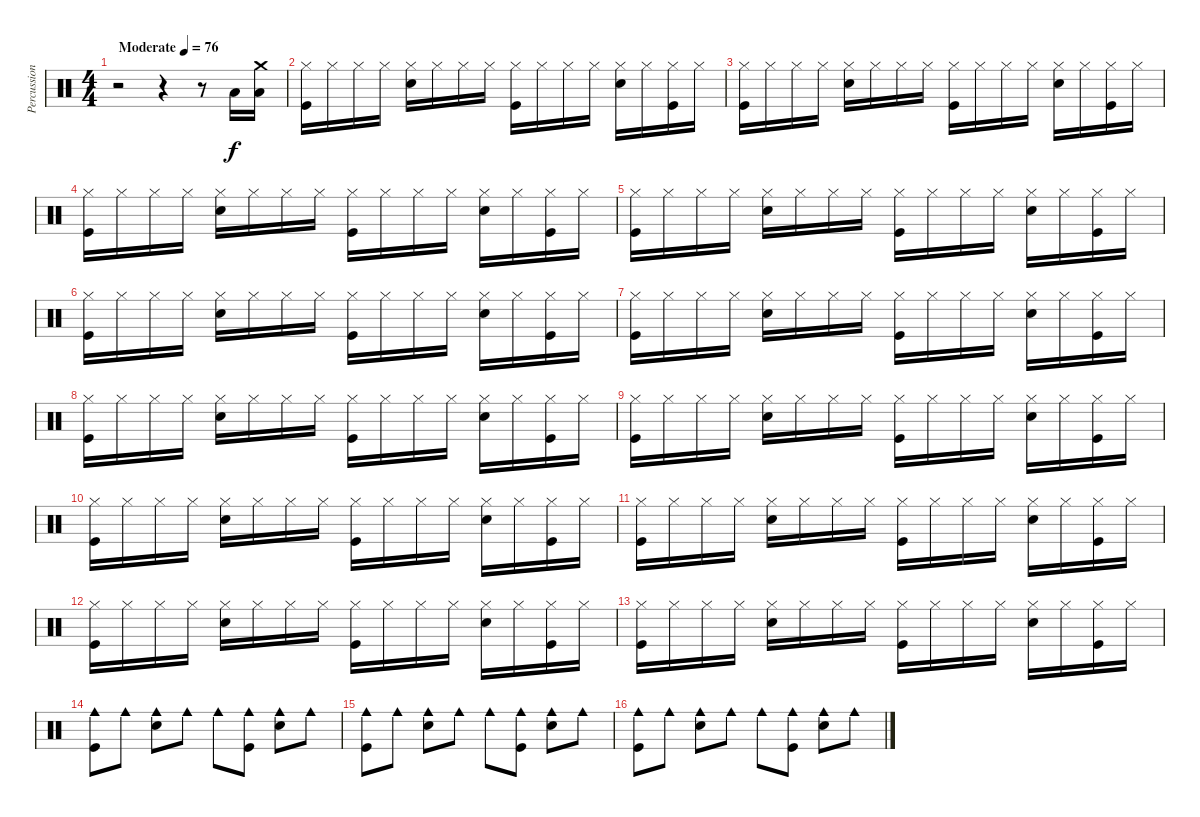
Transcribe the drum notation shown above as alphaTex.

\track ("Percussion" "Percussion") {instrument percussion}
\staff {score}
\articulation defaults
\ts (4 4)
\tempo (76 "Moderate")
\clef neutral
\ks c
r.2{dy f} r.4 r.8 "Low Tom (hit)".16 ("Crash medium (hit)" "Low Floor Tom (hit)").16 |
("Hi-Hat (closed)" "Kick (hit)").16 "Hi-Hat (closed)".16 "Hi-Hat (closed)".16 "Hi-Hat (closed)".16 ("Hi-Hat (closed)" "Snare (hit) 2").16 "Hi-Hat (closed)".16 "Hi-Hat (closed)".16 "Hi-Hat (closed)".16 ("Hi-Hat (closed)" "Kick (hit)").16 "Hi-Hat (closed)".16 "Hi-Hat (closed)".16 "Hi-Hat (closed)".16 ("Hi-Hat (closed)" "Snare (hit) 2").16 "Hi-Hat (closed)".16 ("Hi-Hat (closed)" "Kick (hit)").16 "Hi-Hat (closed)".16 |
("Hi-Hat (closed)" "Kick (hit)").16 "Hi-Hat (closed)".16 "Hi-Hat (closed)".16 "Hi-Hat (closed)".16 ("Hi-Hat (closed)" "Snare (hit) 2").16 "Hi-Hat (closed)".16 "Hi-Hat (closed)".16 "Hi-Hat (closed)".16 ("Hi-Hat (closed)" "Kick (hit)").16 "Hi-Hat (closed)".16 "Hi-Hat (closed)".16 "Hi-Hat (closed)".16 ("Hi-Hat (closed)" "Snare (hit) 2").16 "Hi-Hat (closed)".16 ("Hi-Hat (closed)" "Kick (hit)").16 "Hi-Hat (closed)".16 |
("Hi-Hat (closed)" "Kick (hit)").16 "Hi-Hat (closed)".16 "Hi-Hat (closed)".16 "Hi-Hat (closed)".16 ("Hi-Hat (closed)" "Snare (hit) 2").16 "Hi-Hat (closed)".16 "Hi-Hat (closed)".16 "Hi-Hat (closed)".16 ("Hi-Hat (closed)" "Kick (hit)").16 "Hi-Hat (closed)".16 "Hi-Hat (closed)".16 "Hi-Hat (closed)".16 ("Hi-Hat (closed)" "Snare (hit) 2").16 "Hi-Hat (closed)".16 ("Hi-Hat (closed)" "Kick (hit)").16 "Hi-Hat (closed)".16 |
("Hi-Hat (closed)" "Kick (hit)").16 "Hi-Hat (closed)".16 "Hi-Hat (closed)".16 "Hi-Hat (closed)".16 ("Hi-Hat (closed)" "Snare (hit) 2").16 "Hi-Hat (closed)".16 "Hi-Hat (closed)".16 "Hi-Hat (closed)".16 ("Hi-Hat (closed)" "Kick (hit)").16 "Hi-Hat (closed)".16 "Hi-Hat (closed)".16 "Hi-Hat (closed)".16 ("Hi-Hat (closed)" "Snare (hit) 2").16 "Hi-Hat (closed)".16 ("Hi-Hat (closed)" "Kick (hit)").16 "Hi-Hat (closed)".16 |
("Hi-Hat (closed)" "Kick (hit)").16 "Hi-Hat (closed)".16 "Hi-Hat (closed)".16 "Hi-Hat (closed)".16 ("Hi-Hat (closed)" "Snare (hit) 2").16 "Hi-Hat (closed)".16 "Hi-Hat (closed)".16 "Hi-Hat (closed)".16 ("Hi-Hat (closed)" "Kick (hit)").16 "Hi-Hat (closed)".16 "Hi-Hat (closed)".16 "Hi-Hat (closed)".16 ("Hi-Hat (closed)" "Snare (hit) 2").16 "Hi-Hat (closed)".16 ("Hi-Hat (closed)" "Kick (hit)").16 "Hi-Hat (closed)".16 |
("Hi-Hat (closed)" "Kick (hit)").16 "Hi-Hat (closed)".16 "Hi-Hat (closed)".16 "Hi-Hat (closed)".16 ("Hi-Hat (closed)" "Snare (hit) 2").16 "Hi-Hat (closed)".16 "Hi-Hat (closed)".16 "Hi-Hat (closed)".16 ("Hi-Hat (closed)" "Kick (hit)").16 "Hi-Hat (closed)".16 "Hi-Hat (closed)".16 "Hi-Hat (closed)".16 ("Hi-Hat (closed)" "Snare (hit) 2").16 "Hi-Hat (closed)".16 ("Hi-Hat (closed)" "Kick (hit)").16 "Hi-Hat (closed)".16 |
("Hi-Hat (closed)" "Kick (hit)").16 "Hi-Hat (closed)".16 "Hi-Hat (closed)".16 "Hi-Hat (closed)".16 ("Hi-Hat (closed)" "Snare (hit) 2").16 "Hi-Hat (closed)".16 "Hi-Hat (closed)".16 "Hi-Hat (closed)".16 ("Hi-Hat (closed)" "Kick (hit)").16 "Hi-Hat (closed)".16 "Hi-Hat (closed)".16 "Hi-Hat (closed)".16 ("Hi-Hat (closed)" "Snare (hit) 2").16 "Hi-Hat (closed)".16 ("Hi-Hat (closed)" "Kick (hit)").16 "Hi-Hat (closed)".16 |
("Hi-Hat (closed)" "Kick (hit)").16 "Hi-Hat (closed)".16 "Hi-Hat (closed)".16 "Hi-Hat (closed)".16 ("Hi-Hat (closed)" "Snare (hit) 2").16 "Hi-Hat (closed)".16 "Hi-Hat (closed)".16 "Hi-Hat (closed)".16 ("Hi-Hat (closed)" "Kick (hit)").16 "Hi-Hat (closed)".16 "Hi-Hat (closed)".16 "Hi-Hat (closed)".16 ("Hi-Hat (closed)" "Snare (hit) 2").16 "Hi-Hat (closed)".16 ("Hi-Hat (closed)" "Kick (hit)").16 "Hi-Hat (closed)".16 |
("Hi-Hat (closed)" "Kick (hit)").16 "Hi-Hat (closed)".16 "Hi-Hat (closed)".16 "Hi-Hat (closed)".16 ("Hi-Hat (closed)" "Snare (hit) 2").16 "Hi-Hat (closed)".16 "Hi-Hat (closed)".16 "Hi-Hat (closed)".16 ("Hi-Hat (closed)" "Kick (hit)").16 "Hi-Hat (closed)".16 "Hi-Hat (closed)".16 "Hi-Hat (closed)".16 ("Hi-Hat (closed)" "Snare (hit) 2").16 "Hi-Hat (closed)".16 ("Hi-Hat (closed)" "Kick (hit)").16 "Hi-Hat (closed)".16 |
("Hi-Hat (closed)" "Kick (hit)").16 "Hi-Hat (closed)".16 "Hi-Hat (closed)".16 "Hi-Hat (closed)".16 ("Hi-Hat (closed)" "Snare (hit) 2").16 "Hi-Hat (closed)".16 "Hi-Hat (closed)".16 "Hi-Hat (closed)".16 ("Hi-Hat (closed)" "Kick (hit)").16 "Hi-Hat (closed)".16 "Hi-Hat (closed)".16 "Hi-Hat (closed)".16 ("Hi-Hat (closed)" "Snare (hit) 2").16 "Hi-Hat (closed)".16 ("Hi-Hat (closed)" "Kick (hit)").16 "Hi-Hat (closed)".16 |
("Hi-Hat (closed)" "Kick (hit)").16 "Hi-Hat (closed)".16 "Hi-Hat (closed)".16 "Hi-Hat (closed)".16 ("Hi-Hat (closed)" "Snare (hit) 2").16 "Hi-Hat (closed)".16 "Hi-Hat (closed)".16 "Hi-Hat (closed)".16 ("Hi-Hat (closed)" "Kick (hit)").16 "Hi-Hat (closed)".16 "Hi-Hat (closed)".16 "Hi-Hat (closed)".16 ("Hi-Hat (closed)" "Snare (hit) 2").16 "Hi-Hat (closed)".16 ("Hi-Hat (closed)" "Kick (hit)").16 "Hi-Hat (closed)".16 |
("Hi-Hat (closed)" "Kick (hit)").16 "Hi-Hat (closed)".16 "Hi-Hat (closed)".16 "Hi-Hat (closed)".16 ("Hi-Hat (closed)" "Snare (hit) 2").16 "Hi-Hat (closed)".16 "Hi-Hat (closed)".16 "Hi-Hat (closed)".16 ("Hi-Hat (closed)" "Kick (hit)").16 "Hi-Hat (closed)".16 "Hi-Hat (closed)".16 "Hi-Hat (closed)".16 ("Hi-Hat (closed)" "Snare (hit) 2").16 "Hi-Hat (closed)".16 ("Hi-Hat (closed)" "Kick (hit)").16 "Hi-Hat (closed)".16 |
("Cowbell medium (hit)" "Kick (hit)").8 "Cowbell medium (hit)".8 ("Cowbell medium (hit)" "Snare (hit) 2").8 "Cowbell medium (hit)".8 "Cowbell medium (hit)".8 ("Cowbell medium (hit)" "Kick (hit)").8 ("Cowbell medium (hit)" "Snare (hit) 2").8 "Cowbell medium (hit)".8 |
("Cowbell medium (hit)" "Kick (hit)").8 "Cowbell medium (hit)".8 ("Cowbell medium (hit)" "Snare (hit) 2").8 "Cowbell medium (hit)".8 "Cowbell medium (hit)".8 ("Cowbell medium (hit)" "Kick (hit)").8 ("Cowbell medium (hit)" "Snare (hit) 2").8 "Cowbell medium (hit)".8 |
("Cowbell medium (hit)" "Kick (hit)").8 "Cowbell medium (hit)".8 ("Cowbell medium (hit)" "Snare (hit) 2").8 "Cowbell medium (hit)".8 "Cowbell medium (hit)".8 ("Cowbell medium (hit)" "Kick (hit)").8 ("Cowbell medium (hit)" "Snare (hit) 2").8 "Cowbell medium (hit)".8
